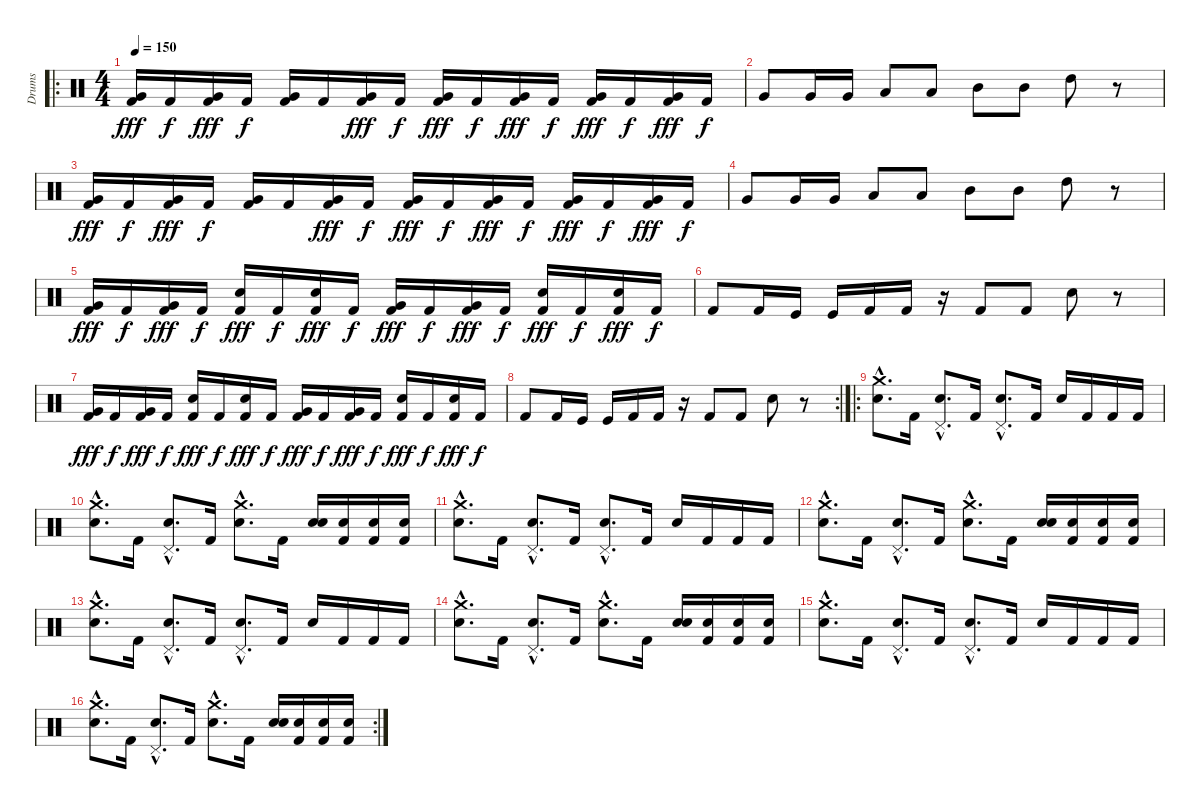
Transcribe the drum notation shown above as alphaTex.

\track ("Drums" "Drums") {instrument percussion}
\staff {score}
\articulation defaults
\ro
\ts (4 4)
\tempo 150
\clef neutral
\ks c
("Very Low Tom (hit)" "Kick (hit) 2").16{dy fff} "Kick (hit) 2".16{dy f} ("Very Low Tom (hit)" "Kick (hit) 2").16{dy fff} "Kick (hit) 2".16{dy f} ("Very Low Tom (hit)" "Kick (hit) 2").16 "Kick (hit) 2".16 ("Very Low Tom (hit)" "Kick (hit) 2").16{dy fff} "Kick (hit) 2".16{dy f} ("Very Low Tom (hit)" "Kick (hit) 2").16{dy fff} "Kick (hit) 2".16{dy f} ("Very Low Tom (hit)" "Kick (hit) 2").16{dy fff} "Kick (hit) 2".16{dy f} ("Very Low Tom (hit)" "Kick (hit) 2").16{dy fff} "Kick (hit) 2".16{dy f} ("Very Low Tom (hit)" "Kick (hit) 2").16{dy fff} "Kick (hit) 2".16{dy f} |
"Very Low Tom (hit)".8 "Very Low Tom (hit)".16 "Very Low Tom (hit)".16 "Low Tom (hit)".8 "Low Tom (hit)".8 "Mid Tom (hit)".8 "Mid Tom (hit)".8 "High Tom (hit)".8 r.8 |
("Very Low Tom (hit)" "Kick (hit) 2").16{dy fff} "Kick (hit) 2".16{dy f} ("Very Low Tom (hit)" "Kick (hit) 2").16{dy fff} "Kick (hit) 2".16{dy f} ("Very Low Tom (hit)" "Kick (hit) 2").16 "Kick (hit) 2".16 ("Very Low Tom (hit)" "Kick (hit) 2").16{dy fff} "Kick (hit) 2".16{dy f} ("Very Low Tom (hit)" "Kick (hit) 2").16{dy fff} "Kick (hit) 2".16{dy f} ("Very Low Tom (hit)" "Kick (hit) 2").16{dy fff} "Kick (hit) 2".16{dy f} ("Very Low Tom (hit)" "Kick (hit) 2").16{dy fff} "Kick (hit) 2".16{dy f} ("Very Low Tom (hit)" "Kick (hit) 2").16{dy fff} "Kick (hit) 2".16{dy f} |
"Very Low Tom (hit)".8 "Very Low Tom (hit)".16 "Very Low Tom (hit)".16 "Low Tom (hit)".8 "Low Tom (hit)".8 "Mid Tom (hit)".8 "Mid Tom (hit)".8 "High Tom (hit)".8 r.8 |
("Very Low Tom (hit)" "Kick (hit) 2").16{dy fff} "Kick (hit) 2".16{dy f} ("Very Low Tom (hit)" "Kick (hit) 2").16{dy fff} "Kick (hit) 2".16{dy f} ("Snare (hit) 2" "Kick (hit) 2").16{dy fff} "Kick (hit) 2".16{dy f} ("Snare (hit) 2" "Kick (hit) 2").16{dy fff} "Kick (hit) 2".16{dy f} ("Very Low Tom (hit)" "Kick (hit) 2").16{dy fff} "Kick (hit) 2".16{dy f} ("Very Low Tom (hit)" "Kick (hit) 2").16{dy fff} "Kick (hit) 2".16{dy f} ("Snare (hit) 2" "Kick (hit) 2").16{dy fff} "Kick (hit) 2".16{dy f} ("Snare (hit) 2" "Kick (hit) 2").16{dy fff} "Kick (hit) 2".16{dy f} |
"Kick (hit) 2".8 "Kick (hit) 2".16 "Kick (hit)".16 "Kick (hit)".16 "Kick (hit) 2".16 "Kick (hit) 2".16 r.16 "Kick (hit) 2".8 "Kick (hit) 2".8 "Snare (hit) 2".8 r.8 |
("Very Low Tom (hit)" "Kick (hit) 2").16{dy fff} "Kick (hit) 2".16{dy f} ("Very Low Tom (hit)" "Kick (hit) 2").16{dy fff} "Kick (hit) 2".16{dy f} ("Snare (hit) 2" "Kick (hit) 2").16{dy fff} "Kick (hit) 2".16{dy f} ("Snare (hit) 2" "Kick (hit) 2").16{dy fff} "Kick (hit) 2".16{dy f} ("Very Low Tom (hit)" "Kick (hit) 2").16{dy fff} "Kick (hit) 2".16{dy f} ("Very Low Tom (hit)" "Kick (hit) 2").16{dy fff} "Kick (hit) 2".16{dy f} ("Snare (hit) 2" "Kick (hit) 2").16{dy fff} "Kick (hit) 2".16{dy f} ("Snare (hit) 2" "Kick (hit) 2").16{dy fff} "Kick (hit) 2".16{dy f} |
\rc 2 "Kick (hit) 2".8 "Kick (hit) 2".16 "Kick (hit)".16 "Kick (hit)".16 "Kick (hit) 2".16 "Kick (hit) 2".16
r.16 "Kick (hit) 2".8 "Kick (hit) 2".8 "Snare (hit) 2".8 r.8 |
\ro
("Electric Snare (hit)"{hac} "Crash medium (hit)").8{d} "Kick (hit) 2".16 ("Electric Snare (hit)"{hac} "Pedal Hi-Hat (hit)"{hac}).8{d} "Kick (hit) 2".16 ("Electric Snare (hit)"{hac} "Pedal Hi-Hat (hit)"{hac}).8{d} "Kick (hit) 2".16 "Electric Snare (hit)".16 "Kick (hit) 2".16 "Kick (hit) 2".16 "Kick (hit) 2".16 |
("Electric Snare (hit)"{hac} "Crash medium (hit)").8{d} "Kick (hit) 2".16 ("Electric Snare (hit)"{hac} "Pedal Hi-Hat (hit)"{hac}).8{d} "Kick (hit) 2".16 ("Electric Snare (hit)"{hac} "Crash medium (hit)"{hac}).8{d} "Kick (hit) 2".16 ("Electric Snare (hit)" "Snare (hit) 2").16 ("Kick (hit) 2" "Snare (hit) 2").16 ("Kick (hit) 2" "Snare (hit) 2").16 ("Kick (hit) 2" "Snare (hit) 2").16 |
("Electric Snare (hit)"{hac} "Crash medium (hit)").8{d} "Kick (hit) 2".16 ("Electric Snare (hit)"{hac} "Pedal Hi-Hat (hit)"{hac}).8{d} "Kick (hit) 2".16 ("Electric Snare (hit)"{hac} "Pedal Hi-Hat (hit)"{hac}).8{d} "Kick (hit) 2".16 "Electric Snare (hit)".16 "Kick (hit) 2".16 "Kick (hit) 2".16 "Kick (hit) 2".16 |
("Electric Snare (hit)"{hac} "Crash medium (hit)").8{d} "Kick (hit) 2".16 ("Electric Snare (hit)"{hac} "Pedal Hi-Hat (hit)"{hac}).8{d} "Kick (hit) 2".16 ("Electric Snare (hit)"{hac} "Crash medium (hit)"{hac}).8{d} "Kick (hit) 2".16 ("Electric Snare (hit)" "Snare (hit) 2").16 ("Kick (hit) 2" "Snare (hit) 2").16 ("Kick (hit) 2" "Snare (hit) 2").16 ("Kick (hit) 2" "Snare (hit) 2").16 |
("Electric Snare (hit)"{hac} "Crash medium (hit)").8{d} "Kick (hit) 2".16 ("Electric Snare (hit)"{hac} "Pedal Hi-Hat (hit)"{hac}).8{d} "Kick (hit) 2".16 ("Electric Snare (hit)"{hac} "Pedal Hi-Hat (hit)"{hac}).8{d} "Kick (hit) 2".16 "Electric Snare (hit)".16 "Kick (hit) 2".16 "Kick (hit) 2".16 "Kick (hit) 2".16 |
("Electric Snare (hit)"{hac} "Crash medium (hit)").8{d} "Kick (hit) 2".16 ("Electric Snare (hit)"{hac} "Pedal Hi-Hat (hit)"{hac}).8{d} "Kick (hit) 2".16 ("Electric Snare (hit)"{hac} "Crash medium (hit)"{hac}).8{d} "Kick (hit) 2".16 ("Electric Snare (hit)" "Snare (hit) 2").16 ("Kick (hit) 2" "Snare (hit) 2").16 ("Kick (hit) 2" "Snare (hit) 2").16 ("Kick (hit) 2" "Snare (hit) 2").16 |
("Electric Snare (hit)"{hac} "Crash medium (hit)").8{d} "Kick (hit) 2".16 ("Electric Snare (hit)"{hac} "Pedal Hi-Hat (hit)"{hac}).8{d} "Kick (hit) 2".16 ("Electric Snare (hit)"{hac} "Pedal Hi-Hat (hit)"{hac}).8{d} "Kick (hit) 2".16 "Electric Snare (hit)".16 "Kick (hit) 2".16 "Kick (hit) 2".16 "Kick (hit) 2".16 |
\rc 2
("Electric Snare (hit)"{hac} "Crash medium (hit)").8{d} "Kick (hit) 2".16 ("Electric Snare (hit)"{hac} "Pedal Hi-Hat (hit)"{hac}).8{d} "Kick (hit) 2".16 ("Electric Snare (hit)"{hac} "Crash medium (hit)"{hac}).8{d} "Kick (hit) 2".16 ("Electric Snare (hit)" "Snare (hit) 2").16 ("Kick (hit) 2" "Snare (hit) 2").16 ("Kick (hit) 2" "Snare (hit) 2").16 ("Kick (hit) 2" "Snare (hit) 2").16
